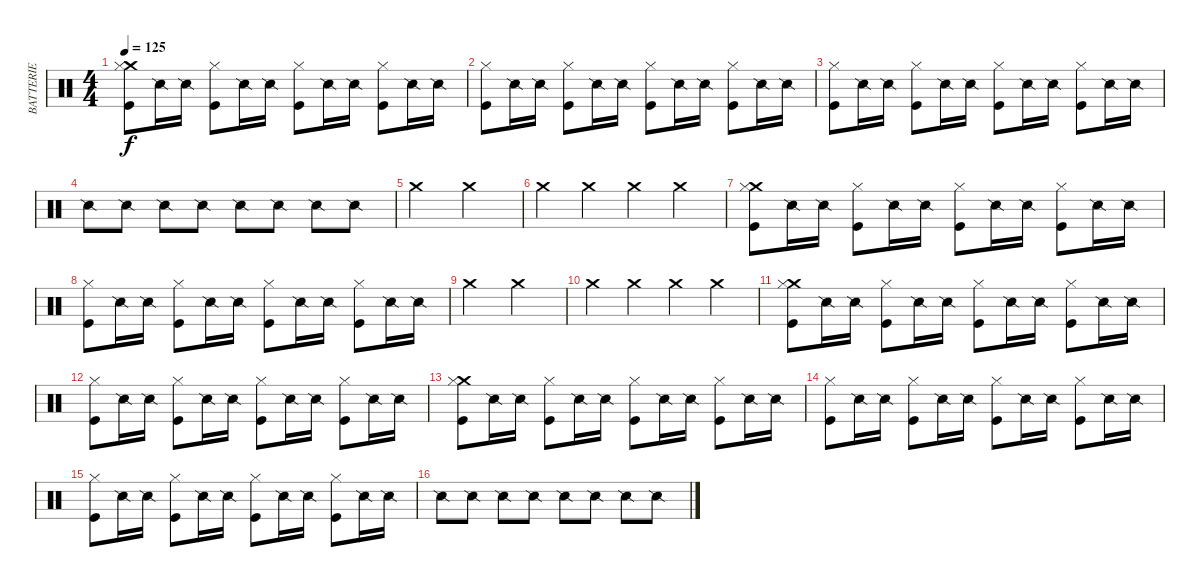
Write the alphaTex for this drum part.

\track ("BATTERIE" "BATTERIE") {instrument percussion}
\staff {score}
\articulation defaults
\ts (4 4)
\tempo 125
\clef neutral
\ks c
("Crash medium (hit)" "Hi-Hat (closed)" "Kick (hit)").8{dy f} "Snare (side stick) 2".16 "Snare (side stick) 2".16 ("Hi-Hat (closed)" "Kick (hit)").8 "Snare (side stick) 2".16 "Snare (side stick) 2".16 ("Hi-Hat (closed)" "Kick (hit)").8 "Snare (side stick) 2".16 "Snare (side stick) 2".16 ("Hi-Hat (closed)" "Kick (hit)").8 "Snare (side stick) 2".16 "Snare (side stick) 2".16 |
("Hi-Hat (closed)" "Kick (hit)").8 "Snare (side stick) 2".16 "Snare (side stick) 2".16 ("Hi-Hat (closed)" "Kick (hit)").8 "Snare (side stick) 2".16 "Snare (side stick) 2".16 ("Hi-Hat (closed)" "Kick (hit)").8 "Snare (side stick) 2".16 "Snare (side stick) 2".16 ("Hi-Hat (closed)" "Kick (hit)").8 "Snare (side stick) 2".16 "Snare (side stick) 2".16 |
("Hi-Hat (closed)" "Kick (hit)").8 "Snare (side stick) 2".16 "Snare (side stick) 2".16 ("Hi-Hat (closed)" "Kick (hit)").8 "Snare (side stick) 2".16 "Snare (side stick) 2".16 ("Hi-Hat (closed)" "Kick (hit)").8 "Snare (side stick) 2".16 "Snare (side stick) 2".16 ("Hi-Hat (closed)" "Kick (hit)").8 "Snare (side stick) 2".16 "Snare (side stick) 2".16 |
"Snare (side stick) 2".8 "Snare (side stick) 2".8 "Snare (side stick) 2".8 "Snare (side stick) 2".8 "Snare (side stick) 2".8 "Snare (side stick) 2".8 "Snare (side stick) 2".8 "Snare (side stick) 2".8 |
"Crash medium (hit)".2 "Crash medium (hit)".2 |
"Crash medium (hit)".4 "Crash medium (hit)".4 "Crash medium (hit)".4 "Crash medium (hit)".4 |
("Crash medium (hit)" "Hi-Hat (closed)" "Kick (hit)").8 "Snare (side stick) 2".16 "Snare (side stick) 2".16 ("Hi-Hat (closed)" "Kick (hit)").8 "Snare (side stick) 2".16 "Snare (side stick) 2".16 ("Hi-Hat (closed)" "Kick (hit)").8 "Snare (side stick) 2".16 "Snare (side stick) 2".16 ("Hi-Hat (closed)" "Kick (hit)").8 "Snare (side stick) 2".16 "Snare (side stick) 2".16 |
("Hi-Hat (closed)" "Kick (hit)").8 "Snare (side stick) 2".16 "Snare (side stick) 2".16 ("Hi-Hat (closed)" "Kick (hit)").8 "Snare (side stick) 2".16 "Snare (side stick) 2".16 ("Hi-Hat (closed)" "Kick (hit)").8 "Snare (side stick) 2".16 "Snare (side stick) 2".16 ("Hi-Hat (closed)" "Kick (hit)").8 "Snare (side stick) 2".16 "Snare (side stick) 2".16 |
"Crash medium (hit)".2 "Crash medium (hit)".2 |
"Crash medium (hit)".4 "Crash medium (hit)".4 "Crash medium (hit)".4 "Crash medium (hit)".4 |
("Crash medium (hit)" "Hi-Hat (closed)" "Kick (hit)").8 "Snare (side stick) 2".16 "Snare (side stick) 2".16 ("Hi-Hat (closed)" "Kick (hit)").8 "Snare (side stick) 2".16 "Snare (side stick) 2".16 ("Hi-Hat (closed)" "Kick (hit)").8 "Snare (side stick) 2".16 "Snare (side stick) 2".16 ("Hi-Hat (closed)" "Kick (hit)").8 "Snare (side stick) 2".16 "Snare (side stick) 2".16 |
("Hi-Hat (closed)" "Kick (hit)").8 "Snare (side stick) 2".16 "Snare (side stick) 2".16 ("Hi-Hat (closed)" "Kick (hit)").8 "Snare (side stick) 2".16 "Snare (side stick) 2".16 ("Hi-Hat (closed)" "Kick (hit)").8 "Snare (side stick) 2".16 "Snare (side stick) 2".16 ("Hi-Hat (closed)" "Kick (hit)").8 "Snare (side stick) 2".16 "Snare (side stick) 2".16 |
("Crash medium (hit)" "Hi-Hat (closed)" "Kick (hit)").8 "Snare (side stick) 2".16 "Snare (side stick) 2".16 ("Hi-Hat (closed)" "Kick (hit)").8 "Snare (side stick) 2".16 "Snare (side stick) 2".16 ("Hi-Hat (closed)" "Kick (hit)").8 "Snare (side stick) 2".16 "Snare (side stick) 2".16 ("Hi-Hat (closed)" "Kick (hit)").8 "Snare (side stick) 2".16 "Snare (side stick) 2".16 |
("Hi-Hat (closed)" "Kick (hit)").8 "Snare (side stick) 2".16 "Snare (side stick) 2".16 ("Hi-Hat (closed)" "Kick (hit)").8 "Snare (side stick) 2".16 "Snare (side stick) 2".16 ("Hi-Hat (closed)" "Kick (hit)").8 "Snare (side stick) 2".16 "Snare (side stick) 2".16 ("Hi-Hat (closed)" "Kick (hit)").8 "Snare (side stick) 2".16 "Snare (side stick) 2".16 |
("Hi-Hat (closed)" "Kick (hit)").8 "Snare (side stick) 2".16 "Snare (side stick) 2".16 ("Hi-Hat (closed)" "Kick (hit)").8 "Snare (side stick) 2".16 "Snare (side stick) 2".16 ("Hi-Hat (closed)" "Kick (hit)").8 "Snare (side stick) 2".16 "Snare (side stick) 2".16 ("Hi-Hat (closed)" "Kick (hit)").8 "Snare (side stick) 2".16 "Snare (side stick) 2".16 |
"Snare (side stick) 2".8 "Snare (side stick) 2".8 "Snare (side stick) 2".8 "Snare (side stick) 2".8 "Snare (side stick) 2".8 "Snare (side stick) 2".8 "Snare (side stick) 2".8 "Snare (side stick) 2".8
